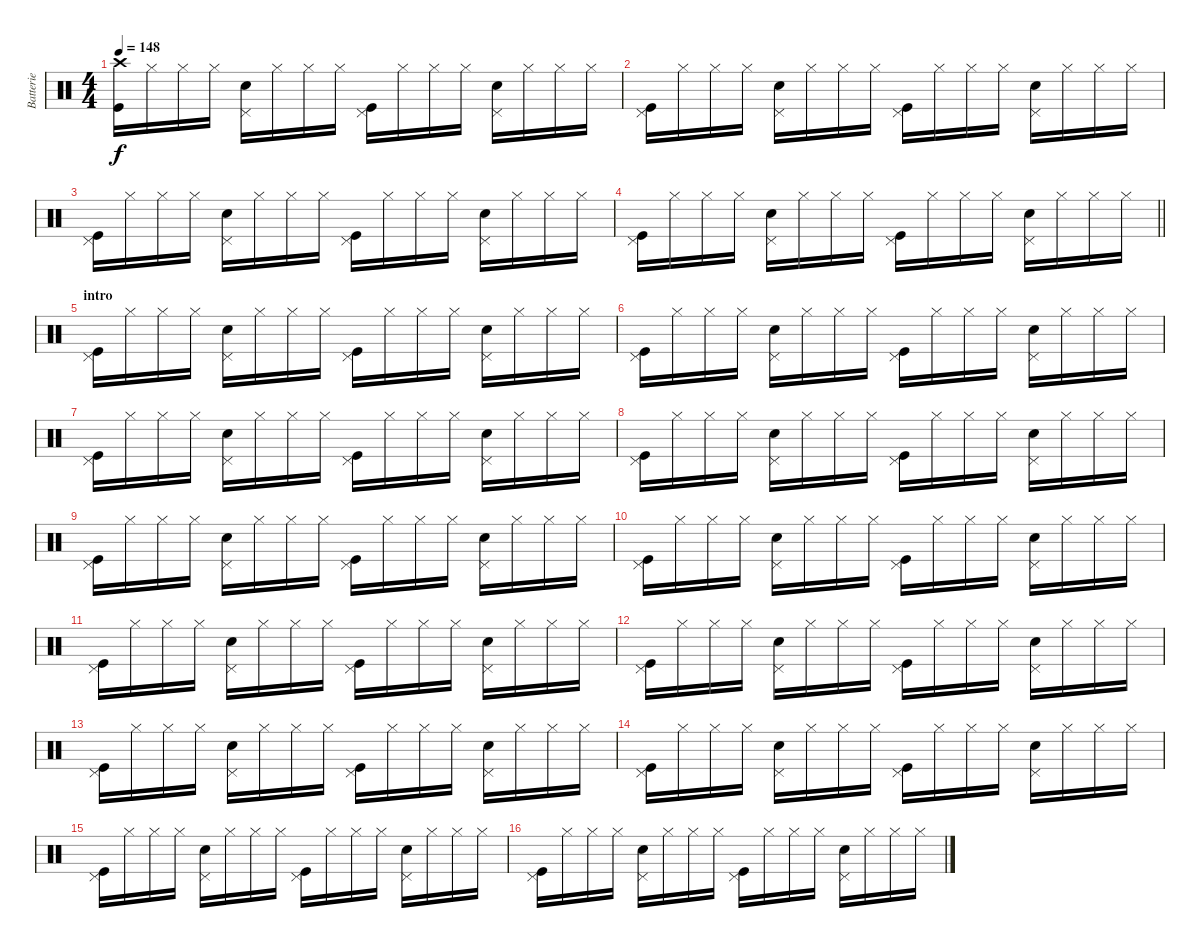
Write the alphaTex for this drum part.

\track ("Batterie" "Batterie") {instrument percussion}
\staff {score}
\articulation defaults
\ts (4 4)
\tempo 148
\clef neutral
\ks c
("Crash high (hit)" "Kick (hit)").16{dy f} "Hi-Hat (closed)".16 "Hi-Hat (closed)".16 "Hi-Hat (closed)".16 ("Pedal Hi-Hat (hit)" "Electric Snare (hit)").16 "Hi-Hat (closed)".16 "Hi-Hat (closed)".16 "Hi-Hat (closed)".16 ("Pedal Hi-Hat (hit)" "Kick (hit)").16 "Hi-Hat (closed)".16 "Hi-Hat (closed)".16 "Hi-Hat (closed)".16 ("Pedal Hi-Hat (hit)" "Electric Snare (hit)").16 "Hi-Hat (closed)".16 "Hi-Hat (closed)".16 "Hi-Hat (closed)".16 |
("Pedal Hi-Hat (hit)" "Kick (hit)").16 "Hi-Hat (closed)".16 "Hi-Hat (closed)".16 "Hi-Hat (closed)".16 ("Pedal Hi-Hat (hit)" "Electric Snare (hit)").16 "Hi-Hat (closed)".16 "Hi-Hat (closed)".16 "Hi-Hat (closed)".16 ("Pedal Hi-Hat (hit)" "Kick (hit)").16 "Hi-Hat (closed)".16 "Hi-Hat (closed)".16 "Hi-Hat (closed)".16 ("Pedal Hi-Hat (hit)" "Electric Snare (hit)").16 "Hi-Hat (closed)".16 "Hi-Hat (closed)".16 "Hi-Hat (closed)".16 |
("Pedal Hi-Hat (hit)" "Kick (hit)").16 "Hi-Hat (closed)".16 "Hi-Hat (closed)".16 "Hi-Hat (closed)".16 ("Pedal Hi-Hat (hit)" "Electric Snare (hit)").16 "Hi-Hat (closed)".16 "Hi-Hat (closed)".16 "Hi-Hat (closed)".16 ("Pedal Hi-Hat (hit)" "Kick (hit)").16 "Hi-Hat (closed)".16 "Hi-Hat (closed)".16 "Hi-Hat (closed)".16 ("Pedal Hi-Hat (hit)" "Electric Snare (hit)").16 "Hi-Hat (closed)".16 "Hi-Hat (closed)".16 "Hi-Hat (closed)".16 |
\barLineRight lightlight
("Pedal Hi-Hat (hit)" "Kick (hit)").16 "Hi-Hat (closed)".16 "Hi-Hat (closed)".16 "Hi-Hat (closed)".16 ("Pedal Hi-Hat (hit)" "Electric Snare (hit)").16 "Hi-Hat (closed)".16 "Hi-Hat (closed)".16 "Hi-Hat (closed)".16 ("Pedal Hi-Hat (hit)" "Kick (hit)").16 "Hi-Hat (closed)".16 "Hi-Hat (closed)".16 "Hi-Hat (closed)".16 ("Pedal Hi-Hat (hit)" "Electric Snare (hit)").16 "Hi-Hat (closed)".16 "Hi-Hat (closed)".16 "Hi-Hat (closed)".16 |
\section ("" "intro")
("Pedal Hi-Hat (hit)" "Kick (hit)").16 "Hi-Hat (closed)".16 "Hi-Hat (closed)".16 "Hi-Hat (closed)".16 ("Pedal Hi-Hat (hit)" "Electric Snare (hit)").16 "Hi-Hat (closed)".16 "Hi-Hat (closed)".16 "Hi-Hat (closed)".16 ("Pedal Hi-Hat (hit)" "Kick (hit)").16 "Hi-Hat (closed)".16 "Hi-Hat (closed)".16 "Hi-Hat (closed)".16 ("Pedal Hi-Hat (hit)" "Electric Snare (hit)").16 "Hi-Hat (closed)".16 "Hi-Hat (closed)".16 "Hi-Hat (closed)".16 |
("Pedal Hi-Hat (hit)" "Kick (hit)").16 "Hi-Hat (closed)".16 "Hi-Hat (closed)".16 "Hi-Hat (closed)".16 ("Pedal Hi-Hat (hit)" "Electric Snare (hit)").16 "Hi-Hat (closed)".16 "Hi-Hat (closed)".16 "Hi-Hat (closed)".16 ("Pedal Hi-Hat (hit)" "Kick (hit)").16 "Hi-Hat (closed)".16 "Hi-Hat (closed)".16 "Hi-Hat (closed)".16 ("Pedal Hi-Hat (hit)" "Electric Snare (hit)").16 "Hi-Hat (closed)".16 "Hi-Hat (closed)".16 "Hi-Hat (closed)".16 |
("Pedal Hi-Hat (hit)" "Kick (hit)").16 "Hi-Hat (closed)".16 "Hi-Hat (closed)".16 "Hi-Hat (closed)".16 ("Pedal Hi-Hat (hit)" "Electric Snare (hit)").16 "Hi-Hat (closed)".16 "Hi-Hat (closed)".16 "Hi-Hat (closed)".16 ("Pedal Hi-Hat (hit)" "Kick (hit)").16 "Hi-Hat (closed)".16 "Hi-Hat (closed)".16 "Hi-Hat (closed)".16 ("Pedal Hi-Hat (hit)" "Electric Snare (hit)").16 "Hi-Hat (closed)".16 "Hi-Hat (closed)".16 "Hi-Hat (closed)".16 |
("Pedal Hi-Hat (hit)" "Kick (hit)").16 "Hi-Hat (closed)".16 "Hi-Hat (closed)".16 "Hi-Hat (closed)".16 ("Pedal Hi-Hat (hit)" "Electric Snare (hit)").16 "Hi-Hat (closed)".16 "Hi-Hat (closed)".16 "Hi-Hat (closed)".16 ("Pedal Hi-Hat (hit)" "Kick (hit)").16 "Hi-Hat (closed)".16 "Hi-Hat (closed)".16 "Hi-Hat (closed)".16 ("Pedal Hi-Hat (hit)" "Electric Snare (hit)").16 "Hi-Hat (closed)".16 "Hi-Hat (closed)".16 "Hi-Hat (closed)".16 |
("Pedal Hi-Hat (hit)" "Kick (hit)").16 "Hi-Hat (closed)".16 "Hi-Hat (closed)".16 "Hi-Hat (closed)".16 ("Pedal Hi-Hat (hit)" "Electric Snare (hit)").16 "Hi-Hat (closed)".16 "Hi-Hat (closed)".16 "Hi-Hat (closed)".16 ("Pedal Hi-Hat (hit)" "Kick (hit)").16 "Hi-Hat (closed)".16 "Hi-Hat (closed)".16 "Hi-Hat (closed)".16 ("Pedal Hi-Hat (hit)" "Electric Snare (hit)").16 "Hi-Hat (closed)".16 "Hi-Hat (closed)".16 "Hi-Hat (closed)".16 |
("Pedal Hi-Hat (hit)" "Kick (hit)").16 "Hi-Hat (closed)".16 "Hi-Hat (closed)".16 "Hi-Hat (closed)".16 ("Pedal Hi-Hat (hit)" "Electric Snare (hit)").16 "Hi-Hat (closed)".16 "Hi-Hat (closed)".16 "Hi-Hat (closed)".16 ("Pedal Hi-Hat (hit)" "Kick (hit)").16 "Hi-Hat (closed)".16 "Hi-Hat (closed)".16 "Hi-Hat (closed)".16 ("Pedal Hi-Hat (hit)" "Electric Snare (hit)").16 "Hi-Hat (closed)".16 "Hi-Hat (closed)".16 "Hi-Hat (closed)".16 |
("Pedal Hi-Hat (hit)" "Kick (hit)").16 "Hi-Hat (closed)".16 "Hi-Hat (closed)".16 "Hi-Hat (closed)".16 ("Pedal Hi-Hat (hit)" "Electric Snare (hit)").16 "Hi-Hat (closed)".16 "Hi-Hat (closed)".16 "Hi-Hat (closed)".16 ("Pedal Hi-Hat (hit)" "Kick (hit)").16 "Hi-Hat (closed)".16 "Hi-Hat (closed)".16 "Hi-Hat (closed)".16 ("Pedal Hi-Hat (hit)" "Electric Snare (hit)").16 "Hi-Hat (closed)".16 "Hi-Hat (closed)".16 "Hi-Hat (closed)".16 |
("Pedal Hi-Hat (hit)" "Kick (hit)").16 "Hi-Hat (closed)".16 "Hi-Hat (closed)".16 "Hi-Hat (closed)".16 ("Pedal Hi-Hat (hit)" "Electric Snare (hit)").16 "Hi-Hat (closed)".16 "Hi-Hat (closed)".16 "Hi-Hat (closed)".16 ("Pedal Hi-Hat (hit)" "Kick (hit)").16 "Hi-Hat (closed)".16 "Hi-Hat (closed)".16 "Hi-Hat (closed)".16 ("Pedal Hi-Hat (hit)" "Electric Snare (hit)").16 "Hi-Hat (closed)".16 "Hi-Hat (closed)".16 "Hi-Hat (closed)".16 |
("Pedal Hi-Hat (hit)" "Kick (hit)").16 "Hi-Hat (closed)".16 "Hi-Hat (closed)".16 "Hi-Hat (closed)".16 ("Pedal Hi-Hat (hit)" "Electric Snare (hit)").16 "Hi-Hat (closed)".16 "Hi-Hat (closed)".16 "Hi-Hat (closed)".16 ("Pedal Hi-Hat (hit)" "Kick (hit)").16 "Hi-Hat (closed)".16 "Hi-Hat (closed)".16 "Hi-Hat (closed)".16 ("Pedal Hi-Hat (hit)" "Electric Snare (hit)").16 "Hi-Hat (closed)".16 "Hi-Hat (closed)".16 "Hi-Hat (closed)".16 |
("Pedal Hi-Hat (hit)" "Kick (hit)").16 "Hi-Hat (closed)".16 "Hi-Hat (closed)".16 "Hi-Hat (closed)".16 ("Pedal Hi-Hat (hit)" "Electric Snare (hit)").16 "Hi-Hat (closed)".16 "Hi-Hat (closed)".16 "Hi-Hat (closed)".16 ("Pedal Hi-Hat (hit)" "Kick (hit)").16 "Hi-Hat (closed)".16 "Hi-Hat (closed)".16 "Hi-Hat (closed)".16 ("Pedal Hi-Hat (hit)" "Electric Snare (hit)").16 "Hi-Hat (closed)".16 "Hi-Hat (closed)".16 "Hi-Hat (closed)".16 |
("Pedal Hi-Hat (hit)" "Kick (hit)").16 "Hi-Hat (closed)".16 "Hi-Hat (closed)".16 "Hi-Hat (closed)".16 ("Pedal Hi-Hat (hit)" "Electric Snare (hit)").16 "Hi-Hat (closed)".16 "Hi-Hat (closed)".16 "Hi-Hat (closed)".16 ("Pedal Hi-Hat (hit)" "Kick (hit)").16 "Hi-Hat (closed)".16 "Hi-Hat (closed)".16 "Hi-Hat (closed)".16 ("Pedal Hi-Hat (hit)" "Electric Snare (hit)").16 "Hi-Hat (closed)".16 "Hi-Hat (closed)".16 "Hi-Hat (closed)".16 |
("Pedal Hi-Hat (hit)" "Kick (hit)").16 "Hi-Hat (closed)".16 "Hi-Hat (closed)".16 "Hi-Hat (closed)".16 ("Pedal Hi-Hat (hit)" "Electric Snare (hit)").16 "Hi-Hat (closed)".16 "Hi-Hat (closed)".16 "Hi-Hat (closed)".16 ("Pedal Hi-Hat (hit)" "Kick (hit)").16 "Hi-Hat (closed)".16 "Hi-Hat (closed)".16 "Hi-Hat (closed)".16 ("Pedal Hi-Hat (hit)" "Electric Snare (hit)").16 "Hi-Hat (closed)".16 "Hi-Hat (closed)".16 "Hi-Hat (closed)".16
